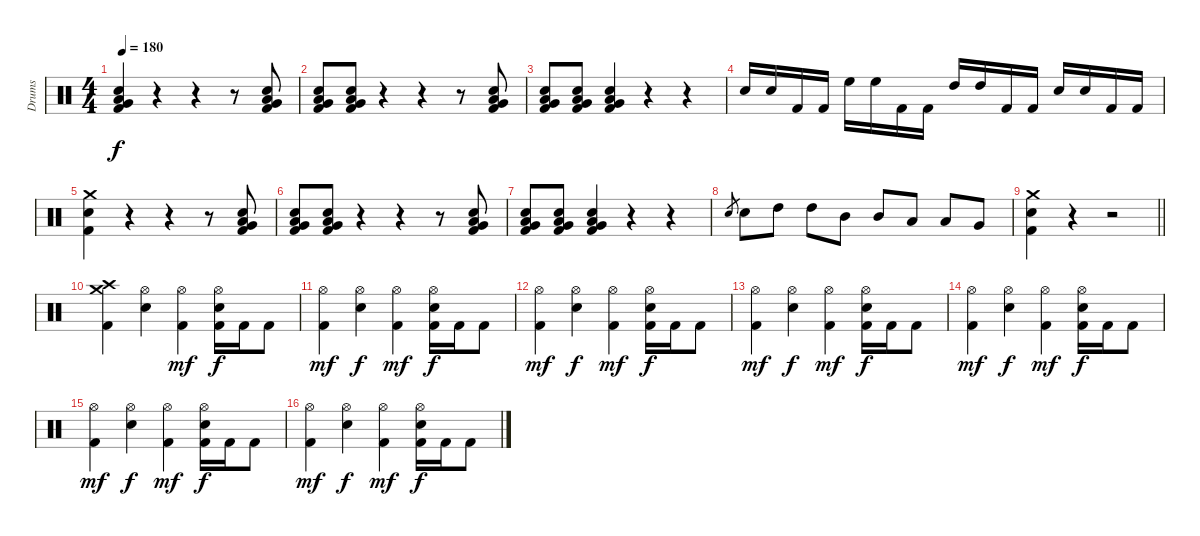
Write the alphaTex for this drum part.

\track ("Drums" "Drums") {instrument percussion}
\staff {score}
\articulation defaults
\ts (4 4)
\tempo 180
\clef neutral
\ks c
("Low Tom (hit)" "Very Low Tom (hit)" "Electric Snare (hit)" "Kick (hit) 2").4{dy f} r.4 r.4 r.8 ("Low Tom (hit)" "Very Low Tom (hit)" "Electric Snare (hit)" "Kick (hit) 2").8 |
("Low Tom (hit)" "Very Low Tom (hit)" "Electric Snare (hit)" "Kick (hit) 2").8 ("Low Tom (hit)" "Very Low Tom (hit)" "Electric Snare (hit)" "Kick (hit) 2").8 r.4 r.4 r.8 ("Low Tom (hit)" "Very Low Tom (hit)" "Electric Snare (hit)" "Kick (hit) 2").8 |
("Low Tom (hit)" "Very Low Tom (hit)" "Electric Snare (hit)" "Kick (hit) 2").8 ("Low Tom (hit)" "Very Low Tom (hit)" "Electric Snare (hit)" "Kick (hit) 2").8 ("Low Tom (hit)" "Very Low Tom (hit)" "Electric Snare (hit)" "Kick (hit) 2").4 r.4 r.4 |
"Electric Snare (hit)".16 "Electric Snare (hit)".16 "Kick (hit) 2".16 "Kick (hit) 2".16 "High Floor Tom (hit)".16 "High Floor Tom (hit)".16 "Kick (hit) 2".16 "Kick (hit) 2".16 "High Tom (hit)".16 "High Tom (hit)".16 "Kick (hit) 2".16 "Kick (hit) 2".16 "Electric Snare (hit)".16 "Electric Snare (hit)".16 "Kick (hit) 2".16 "Kick (hit) 2".16 |
("Crash medium (hit)" "Electric Snare (hit)" "Kick (hit) 2").4 r.4 r.4 r.8 ("Low Tom (hit)" "Very Low Tom (hit)" "Electric Snare (hit)" "Kick (hit) 2").8 |
("Low Tom (hit)" "Very Low Tom (hit)" "Electric Snare (hit)" "Kick (hit) 2").8 ("Low Tom (hit)" "Very Low Tom (hit)" "Electric Snare (hit)" "Kick (hit) 2").8 r.4 r.4 r.8 ("Low Tom (hit)" "Very Low Tom (hit)" "Electric Snare (hit)" "Kick (hit) 2").8 |
("Low Tom (hit)" "Very Low Tom (hit)" "Electric Snare (hit)" "Kick (hit) 2").8 ("Low Tom (hit)" "Very Low Tom (hit)" "Electric Snare (hit)" "Kick (hit) 2").8 ("Low Tom (hit)" "Very Low Tom (hit)" "Electric Snare (hit)" "Kick (hit) 2").4 r.4 r.4 |
"Electric Snare (hit)".8{gr} "Electric Snare (hit)".8 "High Tom (hit)".8 "High Tom (hit)".8 "Mid Tom (hit)".8 "Mid Tom (hit)".8 "Low Tom (hit)".8 "Low Tom (hit)".8 "Very Low Tom (hit)".8 |
\barLineRight lightlight
("Crash medium (hit)" "Electric Snare (hit)" "Kick (hit) 2").4 r.4 r.2 |
("Crash high (hit)" "Crash medium (hit)" "Kick (hit) 2").4 ("Hi-Hat (open)" "Electric Snare (hit)").4 ("Hi-Hat (open)" "Kick (hit) 2").4{dy mf} ("Hi-Hat (open)" "Electric Snare (hit)" "Kick (hit) 2").16{dy f} "Kick (hit) 2".16 "Kick (hit) 2".8 |
("Hi-Hat (open)" "Kick (hit) 2").4{dy mf} ("Hi-Hat (open)" "Electric Snare (hit)").4{dy f} ("Hi-Hat (open)" "Kick (hit) 2").4{dy mf} ("Hi-Hat (open)" "Electric Snare (hit)" "Kick (hit) 2").16{dy f} "Kick (hit) 2".16 "Kick (hit) 2".8 |
("Hi-Hat (open)" "Kick (hit) 2").4{dy mf} ("Hi-Hat (open)" "Electric Snare (hit)").4{dy f} ("Hi-Hat (open)" "Kick (hit) 2").4{dy mf} ("Hi-Hat (open)" "Electric Snare (hit)" "Kick (hit) 2").16{dy f} "Kick (hit) 2".16 "Kick (hit) 2".8 |
("Hi-Hat (open)" "Kick (hit) 2").4{dy mf} ("Hi-Hat (open)" "Electric Snare (hit)").4{dy f} ("Hi-Hat (open)" "Kick (hit) 2").4{dy mf} ("Hi-Hat (open)" "Electric Snare (hit)" "Kick (hit) 2").16{dy f} "Kick (hit) 2".16 "Kick (hit) 2".8 |
("Hi-Hat (open)" "Kick (hit) 2").4{dy mf} ("Hi-Hat (open)" "Electric Snare (hit)").4{dy f} ("Hi-Hat (open)" "Kick (hit) 2").4{dy mf} ("Hi-Hat (open)" "Electric Snare (hit)" "Kick (hit) 2").16{dy f} "Kick (hit) 2".16 "Kick (hit) 2".8 |
("Hi-Hat (open)" "Kick (hit) 2").4{dy mf} ("Hi-Hat (open)" "Electric Snare (hit)").4{dy f} ("Hi-Hat (open)" "Kick (hit) 2").4{dy mf} ("Hi-Hat (open)" "Electric Snare (hit)" "Kick (hit) 2").16{dy f} "Kick (hit) 2".16 "Kick (hit) 2".8 |
("Hi-Hat (open)" "Kick (hit) 2").4{dy mf} ("Hi-Hat (open)" "Electric Snare (hit)").4{dy f} ("Hi-Hat (open)" "Kick (hit) 2").4{dy mf} ("Hi-Hat (open)" "Electric Snare (hit)" "Kick (hit) 2").16{dy f} "Kick (hit) 2".16 "Kick (hit) 2".8
